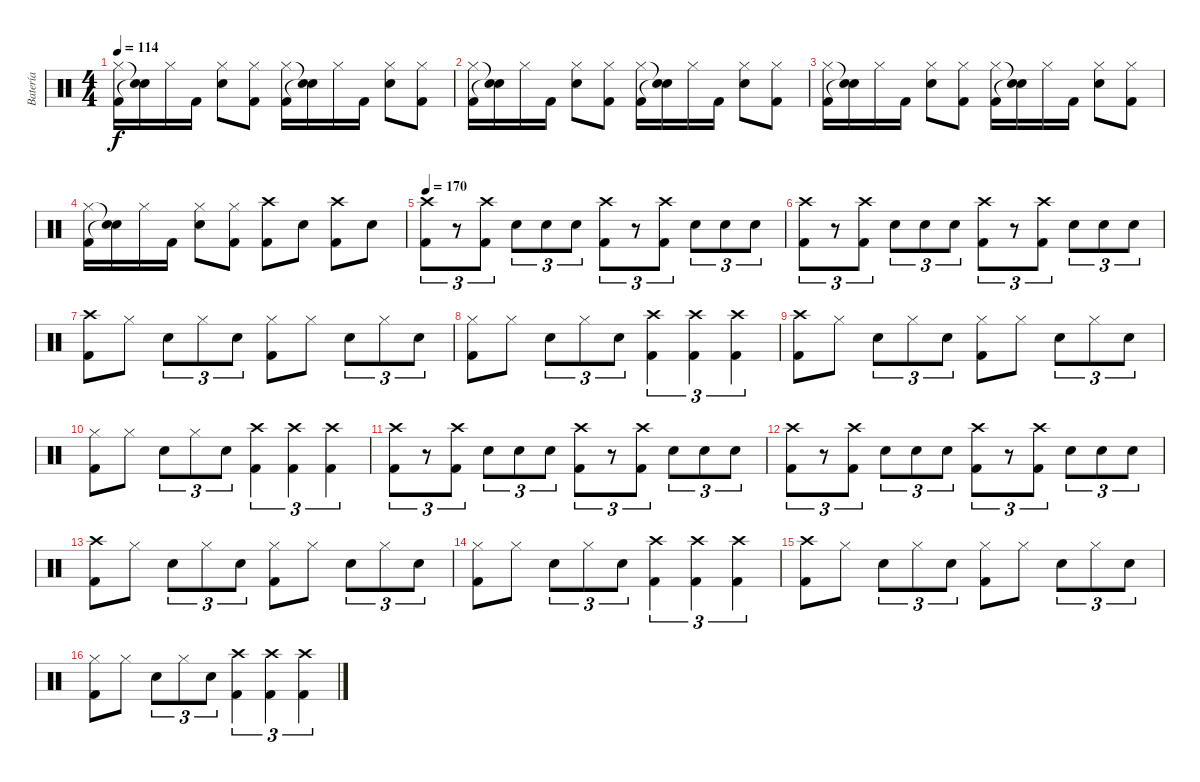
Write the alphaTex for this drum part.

\track ("Batería" "Batería") {instrument percussion}
\staff {score}
\articulation defaults
\ts (4 4)
\tempo 114
\clef neutral
\ks c
("Hi-Hat (closed)" "Kick (hit) 2").16{dy f} ("Snare (hit)"{t} "Snare (hit)"{t}).16 "Hi-Hat (closed)".16 "Kick (hit) 2".16 ("Hi-Hat (closed)" "Snare (hit) 2").8 ("Hi-Hat (closed)" "Kick (hit) 2").8 ("Hi-Hat (closed)" "Kick (hit) 2").16 ("Snare (hit)"{t} "Snare (hit)"{t}).16 "Hi-Hat (closed)".16 "Kick (hit) 2".16 ("Hi-Hat (closed)" "Snare (hit) 2").8 ("Hi-Hat (closed)" "Kick (hit) 2").8 |
("Hi-Hat (closed)" "Kick (hit) 2").16 ("Snare (hit)"{t} "Snare (hit)"{t}).16 "Hi-Hat (closed)".16 "Kick (hit) 2".16 ("Hi-Hat (closed)" "Snare (hit) 2").8 ("Hi-Hat (closed)" "Kick (hit) 2").8 ("Hi-Hat (closed)" "Kick (hit) 2").16 ("Snare (hit)"{t} "Snare (hit)"{t}).16 "Hi-Hat (closed)".16 "Kick (hit) 2".16 ("Hi-Hat (closed)" "Snare (hit) 2").8 ("Hi-Hat (closed)" "Kick (hit) 2").8 |
("Hi-Hat (closed)" "Kick (hit) 2").16 ("Snare (hit)"{t} "Snare (hit)"{t}).16 "Hi-Hat (closed)".16 "Kick (hit) 2".16 ("Hi-Hat (closed)" "Snare (hit) 2").8 ("Hi-Hat (closed)" "Kick (hit) 2").8 ("Hi-Hat (closed)" "Kick (hit) 2").16 ("Snare (hit)"{t} "Snare (hit)"{t}).16 "Hi-Hat (closed)".16 "Kick (hit) 2".16 ("Hi-Hat (closed)" "Snare (hit) 2").8 ("Hi-Hat (closed)" "Kick (hit) 2").8 |
("Hi-Hat (closed)" "Kick (hit) 2").16 ("Snare (hit)"{t} "Snare (hit)"{t}).16 "Hi-Hat (closed)".16 "Kick (hit) 2".16 ("Hi-Hat (closed)" "Snare (hit) 2").8 ("Hi-Hat (closed)" "Kick (hit) 2").8 ("Crash high (hit)" "Kick (hit) 2").8 "Snare (hit) 2".8 ("Crash high (hit)" "Kick (hit) 2").8 "Snare (hit) 2".8 |
\tempo 170
("Crash high (hit)" "Kick (hit) 2").8{tu (3 2)} r.8{tu (3 2)} ("Crash high (hit)" "Kick (hit) 2").8{tu (3 2)} "Snare (hit) 2".8{tu (3 2)} "Snare (hit) 2".8{tu (3 2)} "Snare (hit) 2".8{tu (3 2)} ("Crash high (hit)" "Kick (hit) 2").8{tu (3 2)} r.8{tu (3 2)} ("Crash high (hit)" "Kick (hit) 2").8{tu (3 2)} "Snare (hit) 2".8{tu (3 2)} "Snare (hit) 2".8{tu (3 2)} "Snare (hit) 2".8{tu (3 2)} |
("Crash high (hit)" "Kick (hit) 2").8{tu (3 2)} r.8{tu (3 2)} ("Crash high (hit)" "Kick (hit) 2").8{tu (3 2)} "Snare (hit) 2".8{tu (3 2)} "Snare (hit) 2".8{tu (3 2)} "Snare (hit) 2".8{tu (3 2)} ("Crash high (hit)" "Kick (hit) 2").8{tu (3 2)} r.8{tu (3 2)} ("Crash high (hit)" "Kick (hit) 2").8{tu (3 2)} "Snare (hit) 2".8{tu (3 2)} "Snare (hit) 2".8{tu (3 2)} "Snare (hit) 2".8{tu (3 2)} |
("Crash high (hit)" "Kick (hit) 2").8 "Hi-Hat (closed)".8 "Snare (hit) 2".8{tu (3 2)} "Hi-Hat (closed)".8{tu (3 2)} "Snare (hit) 2".8{tu (3 2)} ("Hi-Hat (closed)" "Kick (hit) 2").8 "Hi-Hat (closed)".8 "Snare (hit) 2".8{tu (3 2)} "Hi-Hat (closed)".8{tu (3 2)} "Snare (hit) 2".8{tu (3 2)} |
("Hi-Hat (closed)" "Kick (hit) 2").8 "Hi-Hat (closed)".8 "Snare (hit) 2".8{tu (3 2)} "Hi-Hat (closed)".8{tu (3 2)} "Snare (hit) 2".8{tu (3 2)} ("Crash high (hit)" "Kick (hit) 2").4{tu (3 2)} ("Crash high (hit)" "Kick (hit) 2").4{tu (3 2)} ("Crash high (hit)" "Kick (hit) 2").4{tu (3 2)} |
("Crash high (hit)" "Kick (hit) 2").8 "Hi-Hat (closed)".8 "Snare (hit) 2".8{tu (3 2)} "Hi-Hat (closed)".8{tu (3 2)} "Snare (hit) 2".8{tu (3 2)} ("Hi-Hat (closed)" "Kick (hit) 2").8 "Hi-Hat (closed)".8 "Snare (hit) 2".8{tu (3 2)} "Hi-Hat (closed)".8{tu (3 2)} "Snare (hit) 2".8{tu (3 2)} |
("Hi-Hat (closed)" "Kick (hit) 2").8 "Hi-Hat (closed)".8 "Snare (hit) 2".8{tu (3 2)} "Hi-Hat (closed)".8{tu (3 2)} "Snare (hit) 2".8{tu (3 2)} ("Crash high (hit)" "Kick (hit) 2").4{tu (3 2)} ("Crash high (hit)" "Kick (hit) 2").4{tu (3 2)} ("Crash high (hit)" "Kick (hit) 2").4{tu (3 2)} |
("Crash high (hit)" "Kick (hit) 2").8{tu (3 2)} r.8{tu (3 2)} ("Crash high (hit)" "Kick (hit) 2").8{tu (3 2)} "Snare (hit) 2".8{tu (3 2)} "Snare (hit) 2".8{tu (3 2)} "Snare (hit) 2".8{tu (3 2)} ("Crash high (hit)" "Kick (hit) 2").8{tu (3 2)} r.8{tu (3 2)} ("Crash high (hit)" "Kick (hit) 2").8{tu (3 2)} "Snare (hit) 2".8{tu (3 2)} "Snare (hit) 2".8{tu (3 2)} "Snare (hit) 2".8{tu (3 2)} |
("Crash high (hit)" "Kick (hit) 2").8{tu (3 2)} r.8{tu (3 2)} ("Crash high (hit)" "Kick (hit) 2").8{tu (3 2)} "Snare (hit) 2".8{tu (3 2)} "Snare (hit) 2".8{tu (3 2)} "Snare (hit) 2".8{tu (3 2)} ("Crash high (hit)" "Kick (hit) 2").8{tu (3 2)} r.8{tu (3 2)} ("Crash high (hit)" "Kick (hit) 2").8{tu (3 2)} "Snare (hit) 2".8{tu (3 2)} "Snare (hit) 2".8{tu (3 2)} "Snare (hit) 2".8{tu (3 2)} |
("Crash high (hit)" "Kick (hit) 2").8 "Hi-Hat (closed)".8 "Snare (hit) 2".8{tu (3 2)} "Hi-Hat (closed)".8{tu (3 2)} "Snare (hit) 2".8{tu (3 2)} ("Hi-Hat (closed)" "Kick (hit) 2").8 "Hi-Hat (closed)".8 "Snare (hit) 2".8{tu (3 2)} "Hi-Hat (closed)".8{tu (3 2)} "Snare (hit) 2".8{tu (3 2)} |
("Hi-Hat (closed)" "Kick (hit) 2").8 "Hi-Hat (closed)".8 "Snare (hit) 2".8{tu (3 2)} "Hi-Hat (closed)".8{tu (3 2)} "Snare (hit) 2".8{tu (3 2)} ("Crash high (hit)" "Kick (hit) 2").4{tu (3 2)} ("Crash high (hit)" "Kick (hit) 2").4{tu (3 2)} ("Crash high (hit)" "Kick (hit) 2").4{tu (3 2)} |
("Crash high (hit)" "Kick (hit) 2").8 "Hi-Hat (closed)".8 "Snare (hit) 2".8{tu (3 2)} "Hi-Hat (closed)".8{tu (3 2)} "Snare (hit) 2".8{tu (3 2)} ("Hi-Hat (closed)" "Kick (hit) 2").8 "Hi-Hat (closed)".8 "Snare (hit) 2".8{tu (3 2)} "Hi-Hat (closed)".8{tu (3 2)} "Snare (hit) 2".8{tu (3 2)} |
("Hi-Hat (closed)" "Kick (hit) 2").8 "Hi-Hat (closed)".8 "Snare (hit) 2".8{tu (3 2)} "Hi-Hat (closed)".8{tu (3 2)} "Snare (hit) 2".8{tu (3 2)} ("Crash high (hit)" "Kick (hit) 2").4{tu (3 2)} ("Crash high (hit)" "Kick (hit) 2").4{tu (3 2)} ("Crash high (hit)" "Kick (hit) 2").4{tu (3 2)}
